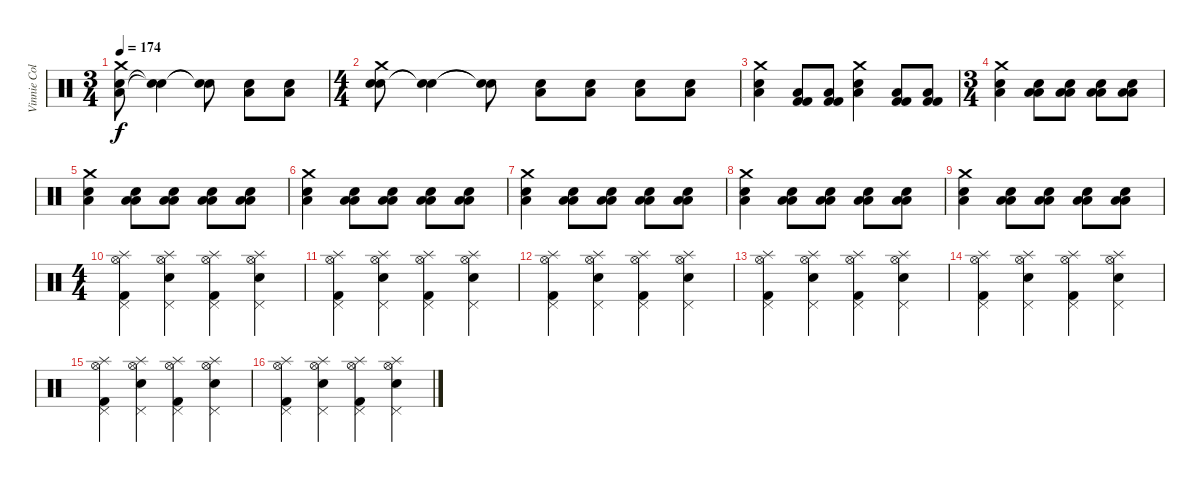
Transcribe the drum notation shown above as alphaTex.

\track ("Vinnie Colaiuta" "Vinnie Col") {instrument percussion}
\staff {score}
\articulation defaults
\ts (3 4)
\tempo 174
\clef neutral
\ks c
("Snare (hit) 2" "Low Tom (hit)" "Crash medium (hit)").8{dy f} ("Snare (hit) 2"{t} "Snare (hit) 2"{t}).4 ("Snare (hit) 2"{t} "Snare (hit) 2"{t}).8 ("Snare (hit) 2" "Low Tom (hit)").8 ("Snare (hit) 2" "Low Tom (hit)").8 |
\ts (4 4)
("Snare (hit) 2" "Snare (hit) 2" "Crash medium (hit)").8 ("Snare (hit) 2"{t} "Snare (hit) 2"{t}).4 ("Snare (hit) 2"{t} "Snare (hit) 2"{t}).8 ("Snare (hit) 2" "Low Tom (hit)").8 ("Snare (hit) 2" "Low Tom (hit)").8 ("Snare (hit) 2" "Low Tom (hit)").8 ("Snare (hit) 2" "Low Tom (hit)").8 |
("Snare (hit) 2" "Low Tom (hit)" "Crash medium (hit)").4 ("Kick (hit) 2" "Kick (hit) 2" "Low Tom (hit)").8 ("Kick (hit) 2" "Kick (hit) 2" "Low Tom (hit)").8 ("Snare (hit) 2" "Low Tom (hit)" "Crash medium (hit)").4 ("Kick (hit) 2" "Kick (hit) 2" "Low Tom (hit)").8 ("Kick (hit) 2" "Kick (hit) 2" "Low Tom (hit)").8 |
\ts (3 4)
("Snare (hit) 2" "Low Tom (hit)" "Crash medium (hit)").4 ("Snare (hit) 2" "Low Tom (hit)" "Low Tom (hit)").8 ("Snare (hit) 2" "Low Tom (hit)" "Low Tom (hit)").8 ("Snare (hit) 2" "Low Tom (hit)" "Low Tom (hit)").8 ("Snare (hit) 2" "Low Tom (hit)" "Low Tom (hit)").8 |
("Snare (hit) 2" "Low Tom (hit)" "Crash medium (hit)").4 ("Snare (hit) 2" "Low Tom (hit)" "Low Tom (hit)").8 ("Snare (hit) 2" "Low Tom (hit)" "Low Tom (hit)").8 ("Snare (hit) 2" "Low Tom (hit)" "Low Tom (hit)").8 ("Snare (hit) 2" "Low Tom (hit)" "Low Tom (hit)").8 |
("Snare (hit) 2" "Low Tom (hit)" "Crash medium (hit)").4 ("Snare (hit) 2" "Low Tom (hit)" "Low Tom (hit)").8 ("Snare (hit) 2" "Low Tom (hit)" "Low Tom (hit)").8 ("Snare (hit) 2" "Low Tom (hit)" "Low Tom (hit)").8 ("Snare (hit) 2" "Low Tom (hit)" "Low Tom (hit)").8 |
("Snare (hit) 2" "Low Tom (hit)" "Crash medium (hit)").4 ("Snare (hit) 2" "Low Tom (hit)" "Low Tom (hit)").8 ("Snare (hit) 2" "Low Tom (hit)" "Low Tom (hit)").8 ("Snare (hit) 2" "Low Tom (hit)" "Low Tom (hit)").8 ("Snare (hit) 2" "Low Tom (hit)" "Low Tom (hit)").8 |
("Snare (hit) 2" "Low Tom (hit)" "Crash medium (hit)").4 ("Snare (hit) 2" "Low Tom (hit)" "Low Tom (hit)").8 ("Snare (hit) 2" "Low Tom (hit)" "Low Tom (hit)").8 ("Snare (hit) 2" "Low Tom (hit)" "Low Tom (hit)").8 ("Snare (hit) 2" "Low Tom (hit)" "Low Tom (hit)").8 |
("Snare (hit) 2" "Low Tom (hit)" "Crash medium (hit)").4 ("Snare (hit) 2" "Low Tom (hit)" "Low Tom (hit)").8 ("Snare (hit) 2" "Low Tom (hit)" "Low Tom (hit)").8 ("Snare (hit) 2" "Low Tom (hit)" "Low Tom (hit)").8 ("Snare (hit) 2" "Low Tom (hit)" "Low Tom (hit)").8 |
\ts (4 4)
("Splash (hit)" "Kick (hit) 2" "Pedal Hi-Hat (hit)" "Hi-Hat (open)").4 ("Splash (hit)" "Snare (hit) 2" "Pedal Hi-Hat (hit)" "Hi-Hat (open)").4 ("Splash (hit)" "Kick (hit) 2" "Pedal Hi-Hat (hit)" "Hi-Hat (open)").4 ("Splash (hit)" "Snare (hit) 2" "Pedal Hi-Hat (hit)" "Hi-Hat (open)").4 |
("Splash (hit)" "Kick (hit) 2" "Pedal Hi-Hat (hit)" "Hi-Hat (open)").4 ("Splash (hit)" "Snare (hit) 2" "Pedal Hi-Hat (hit)" "Hi-Hat (open)").4 ("Splash (hit)" "Kick (hit) 2" "Pedal Hi-Hat (hit)" "Hi-Hat (open)").4 ("Splash (hit)" "Snare (hit) 2" "Pedal Hi-Hat (hit)" "Hi-Hat (open)").4 |
("Splash (hit)" "Kick (hit) 2" "Pedal Hi-Hat (hit)" "Hi-Hat (open)").4 ("Splash (hit)" "Snare (hit) 2" "Pedal Hi-Hat (hit)" "Hi-Hat (open)").4 ("Splash (hit)" "Kick (hit) 2" "Pedal Hi-Hat (hit)" "Hi-Hat (open)").4 ("Splash (hit)" "Snare (hit) 2" "Pedal Hi-Hat (hit)" "Hi-Hat (open)").4 |
("Splash (hit)" "Kick (hit) 2" "Pedal Hi-Hat (hit)" "Hi-Hat (open)").4 ("Splash (hit)" "Snare (hit) 2" "Pedal Hi-Hat (hit)" "Hi-Hat (open)").4 ("Splash (hit)" "Kick (hit) 2" "Pedal Hi-Hat (hit)" "Hi-Hat (open)").4 ("Splash (hit)" "Snare (hit) 2" "Pedal Hi-Hat (hit)" "Hi-Hat (open)").4 |
("Splash (hit)" "Kick (hit) 2" "Pedal Hi-Hat (hit)" "Hi-Hat (open)").4 ("Splash (hit)" "Snare (hit) 2" "Pedal Hi-Hat (hit)" "Hi-Hat (open)").4 ("Splash (hit)" "Kick (hit) 2" "Pedal Hi-Hat (hit)" "Hi-Hat (open)").4 ("Splash (hit)" "Snare (hit) 2" "Pedal Hi-Hat (hit)" "Hi-Hat (open)").4 |
("Splash (hit)" "Kick (hit) 2" "Pedal Hi-Hat (hit)" "Hi-Hat (open)").4 ("Splash (hit)" "Snare (hit) 2" "Pedal Hi-Hat (hit)" "Hi-Hat (open)").4 ("Splash (hit)" "Kick (hit) 2" "Pedal Hi-Hat (hit)" "Hi-Hat (open)").4 ("Splash (hit)" "Snare (hit) 2" "Pedal Hi-Hat (hit)" "Hi-Hat (open)").4 |
("Splash (hit)" "Kick (hit) 2" "Pedal Hi-Hat (hit)" "Hi-Hat (open)").4 ("Splash (hit)" "Snare (hit) 2" "Pedal Hi-Hat (hit)" "Hi-Hat (open)").4 ("Splash (hit)" "Kick (hit) 2" "Pedal Hi-Hat (hit)" "Hi-Hat (open)").4 ("Splash (hit)" "Snare (hit) 2" "Pedal Hi-Hat (hit)" "Hi-Hat (open)").4
